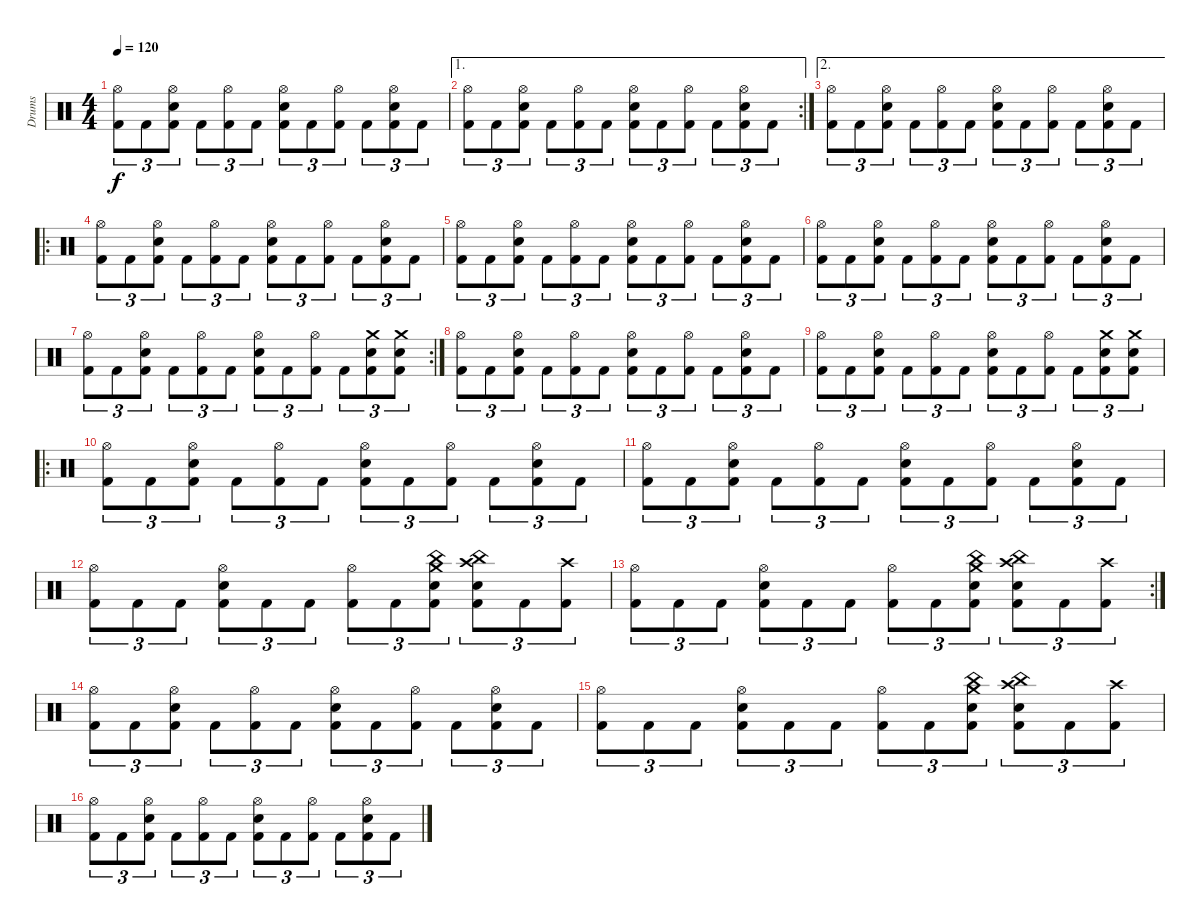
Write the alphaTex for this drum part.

\track ("Drums" "Drums") {instrument percussion}
\staff {score}
\articulation defaults
\ts (4 4)
\tempo 120
\clef neutral
\ks c
("Hi-Hat (open)" "Kick (hit) 2").8{tu (3 2) dy f} "Kick (hit) 2".8{tu (3 2)} ("Hi-Hat (open)" "Snare (hit) 2" "Kick (hit) 2").8{tu (3 2)} "Kick (hit) 2".8{tu (3 2)} ("Hi-Hat (open)" "Kick (hit) 2").8{tu (3 2)} "Kick (hit) 2".8{tu (3 2)} ("Hi-Hat (open)" "Snare (hit) 2" "Kick (hit) 2").8{tu (3 2)} "Kick (hit) 2".8{tu (3 2)} ("Hi-Hat (open)" "Kick (hit) 2").8{tu (3 2)} "Kick (hit) 2".8{tu (3 2)} ("Hi-Hat (open)" "Snare (hit) 2" "Kick (hit) 2").8{tu (3 2)} "Kick (hit) 2".8{tu (3 2)} |
\ae 1
\rc 2
("Hi-Hat (open)" "Kick (hit) 2").8{tu (3 2)} "Kick (hit) 2".8{tu (3 2)} ("Hi-Hat (open)" "Snare (hit) 2" "Kick (hit) 2").8{tu (3 2)} "Kick (hit) 2".8{tu (3 2)} ("Hi-Hat (open)" "Kick (hit) 2").8{tu (3 2)} "Kick (hit) 2".8{tu (3 2)} ("Hi-Hat (open)" "Snare (hit) 2" "Kick (hit) 2").8{tu (3 2)} "Kick (hit) 2".8{tu (3 2)} ("Hi-Hat (open)" "Kick (hit) 2").8{tu (3 2)} "Kick (hit) 2".8{tu (3 2)} ("Hi-Hat (open)" "Snare (hit) 2" "Kick (hit) 2").8{tu (3 2)} "Kick (hit) 2".8{tu (3 2)} |
\ae 2
("Hi-Hat (open)" "Kick (hit) 2").8{tu (3 2)} "Kick (hit) 2".8{tu (3 2)} ("Hi-Hat (open)" "Snare (hit) 2" "Kick (hit) 2").8{tu (3 2)} "Kick (hit) 2".8{tu (3 2)} ("Hi-Hat (open)" "Kick (hit) 2").8{tu (3 2)} "Kick (hit) 2".8{tu (3 2)} ("Hi-Hat (open)" "Snare (hit) 2" "Kick (hit) 2").8{tu (3 2)} "Kick (hit) 2".8{tu (3 2)} ("Hi-Hat (open)" "Kick (hit) 2").8{tu (3 2)} "Kick (hit) 2".8{tu (3 2)} ("Hi-Hat (open)" "Snare (hit) 2" "Kick (hit) 2").8{tu (3 2)} "Kick (hit) 2".8{tu (3 2)} |
\ro
("Hi-Hat (open)" "Kick (hit) 2").8{tu (3 2)} "Kick (hit) 2".8{tu (3 2)} ("Hi-Hat (open)" "Snare (hit) 2" "Kick (hit) 2").8{tu (3 2)} "Kick (hit) 2".8{tu (3 2)} ("Hi-Hat (open)" "Kick (hit) 2").8{tu (3 2)} "Kick (hit) 2".8{tu (3 2)} ("Hi-Hat (open)" "Snare (hit) 2" "Kick (hit) 2").8{tu (3 2)} "Kick (hit) 2".8{tu (3 2)} ("Hi-Hat (open)" "Kick (hit) 2").8{tu (3 2)} "Kick (hit) 2".8{tu (3 2)} ("Hi-Hat (open)" "Snare (hit) 2" "Kick (hit) 2").8{tu (3 2)} "Kick (hit) 2".8{tu (3 2)} |
("Hi-Hat (open)" "Kick (hit) 2").8{tu (3 2)} "Kick (hit) 2".8{tu (3 2)} ("Hi-Hat (open)" "Snare (hit) 2" "Kick (hit) 2").8{tu (3 2)} "Kick (hit) 2".8{tu (3 2)} ("Hi-Hat (open)" "Kick (hit) 2").8{tu (3 2)} "Kick (hit) 2".8{tu (3 2)} ("Hi-Hat (open)" "Snare (hit) 2" "Kick (hit) 2").8{tu (3 2)} "Kick (hit) 2".8{tu (3 2)} ("Hi-Hat (open)" "Kick (hit) 2").8{tu (3 2)} "Kick (hit) 2".8{tu (3 2)} ("Hi-Hat (open)" "Snare (hit) 2" "Kick (hit) 2").8{tu (3 2)} "Kick (hit) 2".8{tu (3 2)} |
("Hi-Hat (open)" "Kick (hit) 2").8{tu (3 2)} "Kick (hit) 2".8{tu (3 2)} ("Hi-Hat (open)" "Snare (hit) 2" "Kick (hit) 2").8{tu (3 2)} "Kick (hit) 2".8{tu (3 2)} ("Hi-Hat (open)" "Kick (hit) 2").8{tu (3 2)} "Kick (hit) 2".8{tu (3 2)} ("Hi-Hat (open)" "Snare (hit) 2" "Kick (hit) 2").8{tu (3 2)} "Kick (hit) 2".8{tu (3 2)} ("Hi-Hat (open)" "Kick (hit) 2").8{tu (3 2)} "Kick (hit) 2".8{tu (3 2)} ("Hi-Hat (open)" "Snare (hit) 2" "Kick (hit) 2").8{tu (3 2)} "Kick (hit) 2".8{tu (3 2)} |
\rc 2
("Hi-Hat (open)" "Kick (hit) 2").8{tu (3 2)} "Kick (hit) 2".8{tu (3 2)} ("Hi-Hat (open)" "Snare (hit) 2" "Kick (hit) 2").8{tu (3 2)} "Kick (hit) 2".8{tu (3 2)} ("Hi-Hat (open)" "Kick (hit) 2").8{tu (3 2)} "Kick (hit) 2".8{tu (3 2)} ("Hi-Hat (open)" "Snare (hit) 2" "Kick (hit) 2").8{tu (3 2)} "Kick (hit) 2".8{tu (3 2)} ("Hi-Hat (open)" "Kick (hit) 2").8{tu (3 2)} "Kick (hit) 2".8{tu (3 2)} ("Crash medium (hit)" "Snare (hit) 2" "Kick (hit) 2").8{tu (3 2)} ("Crash medium (hit)" "Snare (hit) 2" "Kick (hit) 2").8{tu (3 2)} |
("Hi-Hat (open)" "Kick (hit) 2").8{tu (3 2)} "Kick (hit) 2".8{tu (3 2)} ("Hi-Hat (open)" "Snare (hit) 2" "Kick (hit) 2").8{tu (3 2)} "Kick (hit) 2".8{tu (3 2)} ("Hi-Hat (open)" "Kick (hit) 2").8{tu (3 2)} "Kick (hit) 2".8{tu (3 2)} ("Hi-Hat (open)" "Snare (hit) 2" "Kick (hit) 2").8{tu (3 2)} "Kick (hit) 2".8{tu (3 2)} ("Hi-Hat (open)" "Kick (hit) 2").8{tu (3 2)} "Kick (hit) 2".8{tu (3 2)} ("Hi-Hat (open)" "Snare (hit) 2" "Kick (hit) 2").8{tu (3 2)} "Kick (hit) 2".8{tu (3 2)} |
("Hi-Hat (open)" "Kick (hit) 2").8{tu (3 2)} "Kick (hit) 2".8{tu (3 2)} ("Hi-Hat (open)" "Snare (hit) 2" "Kick (hit) 2").8{tu (3 2)} "Kick (hit) 2".8{tu (3 2)} ("Hi-Hat (open)" "Kick (hit) 2").8{tu (3 2)} "Kick (hit) 2".8{tu (3 2)} ("Hi-Hat (open)" "Snare (hit) 2" "Kick (hit) 2").8{tu (3 2)} "Kick (hit) 2".8{tu (3 2)} ("Hi-Hat (open)" "Kick (hit) 2").8{tu (3 2)} "Kick (hit) 2".8{tu (3 2)} ("Crash medium (hit)" "Snare (hit) 2" "Kick (hit) 2").8{tu (3 2)} ("Crash medium (hit)" "Snare (hit) 2" "Kick (hit) 2").8{tu (3 2)} |
\ro
("Hi-Hat (open)" "Kick (hit) 2").8{tu (3 2)} "Kick (hit) 2".8{tu (3 2)} ("Hi-Hat (open)" "Snare (hit) 2" "Kick (hit) 2").8{tu (3 2)} "Kick (hit) 2".8{tu (3 2)} ("Hi-Hat (open)" "Kick (hit) 2").8{tu (3 2)} "Kick (hit) 2".8{tu (3 2)} ("Hi-Hat (open)" "Snare (hit) 2" "Kick (hit) 2").8{tu (3 2)} "Kick (hit) 2".8{tu (3 2)} ("Hi-Hat (open)" "Kick (hit) 2").8{tu (3 2)} "Kick (hit) 2".8{tu (3 2)} ("Hi-Hat (open)" "Snare (hit) 2" "Kick (hit) 2").8{tu (3 2)} "Kick (hit) 2".8{tu (3 2)} |
("Hi-Hat (open)" "Kick (hit) 2").8{tu (3 2)} "Kick (hit) 2".8{tu (3 2)} ("Hi-Hat (open)" "Snare (hit) 2" "Kick (hit) 2").8{tu (3 2)} "Kick (hit) 2".8{tu (3 2)} ("Hi-Hat (open)" "Kick (hit) 2").8{tu (3 2)} "Kick (hit) 2".8{tu (3 2)} ("Hi-Hat (open)" "Snare (hit) 2" "Kick (hit) 2").8{tu (3 2)} "Kick (hit) 2".8{tu (3 2)} ("Hi-Hat (open)" "Kick (hit) 2").8{tu (3 2)} "Kick (hit) 2".8{tu (3 2)} ("Hi-Hat (open)" "Snare (hit) 2" "Kick (hit) 2").8{tu (3 2)} "Kick (hit) 2".8{tu (3 2)} |
("Hi-Hat (open)" "Kick (hit) 2").8{tu (3 2)} "Kick (hit) 2".8{tu (3 2)} "Kick (hit) 2".8{tu (3 2)} ("Hi-Hat (open)" "Snare (hit) 2" "Kick (hit) 2").8{tu (3 2)} "Kick (hit) 2".8{tu (3 2)} "Kick (hit) 2".8{tu (3 2)} ("Hi-Hat (open)" "Kick (hit) 2").8{tu (3 2)} "Kick (hit) 2".8{tu (3 2)} ("China (hit)" "Crash medium (hit)" "Snare (hit) 2" "Kick (hit) 2").8{tu (3 2)} ("China (hit)" "Crash high (hit)" "Snare (hit) 2" "Kick (hit) 2").8{tu (3 2)} "Kick (hit) 2".8{tu (3 2)} ("Crash high (hit)" "Kick (hit) 2").8{tu (3 2)} |
\rc 2
("Hi-Hat (open)" "Kick (hit) 2").8{tu (3 2)} "Kick (hit) 2".8{tu (3 2)} "Kick (hit) 2".8{tu (3 2)} ("Hi-Hat (open)" "Snare (hit) 2" "Kick (hit) 2").8{tu (3 2)} "Kick (hit) 2".8{tu (3 2)} "Kick (hit) 2".8{tu (3 2)} ("Hi-Hat (open)" "Kick (hit) 2").8{tu (3 2)} "Kick (hit) 2".8{tu (3 2)} ("China (hit)" "Crash medium (hit)" "Snare (hit) 2" "Kick (hit) 2").8{tu (3 2)} ("China (hit)" "Crash high (hit)" "Snare (hit) 2" "Kick (hit) 2").8{tu (3 2)} "Kick (hit) 2".8{tu (3 2)} ("Crash high (hit)" "Kick (hit) 2").8{tu (3 2)} |
("Hi-Hat (open)" "Kick (hit) 2").8{tu (3 2)} "Kick (hit) 2".8{tu (3 2)} ("Hi-Hat (open)" "Snare (hit) 2" "Kick (hit) 2").8{tu (3 2)} "Kick (hit) 2".8{tu (3 2)} ("Hi-Hat (open)" "Kick (hit) 2").8{tu (3 2)} "Kick (hit) 2".8{tu (3 2)} ("Hi-Hat (open)" "Snare (hit) 2" "Kick (hit) 2").8{tu (3 2)} "Kick (hit) 2".8{tu (3 2)} ("Hi-Hat (open)" "Kick (hit) 2").8{tu (3 2)} "Kick (hit) 2".8{tu (3 2)} ("Hi-Hat (open)" "Snare (hit) 2" "Kick (hit) 2").8{tu (3 2)} "Kick (hit) 2".8{tu (3 2)} |
("Hi-Hat (open)" "Kick (hit) 2").8{tu (3 2)} "Kick (hit) 2".8{tu (3 2)} "Kick (hit) 2".8{tu (3 2)} ("Hi-Hat (open)" "Snare (hit) 2" "Kick (hit) 2").8{tu (3 2)} "Kick (hit) 2".8{tu (3 2)} "Kick (hit) 2".8{tu (3 2)} ("Hi-Hat (open)" "Kick (hit) 2").8{tu (3 2)} "Kick (hit) 2".8{tu (3 2)} ("China (hit)" "Crash medium (hit)" "Snare (hit) 2" "Kick (hit) 2").8{tu (3 2)} ("China (hit)" "Crash high (hit)" "Snare (hit) 2" "Kick (hit) 2").8{tu (3 2)} "Kick (hit) 2".8{tu (3 2)} ("Crash high (hit)" "Kick (hit) 2").8{tu (3 2)} |
("Hi-Hat (open)" "Kick (hit) 2").8{tu (3 2)} "Kick (hit) 2".8{tu (3 2)} ("Hi-Hat (open)" "Snare (hit) 2" "Kick (hit) 2").8{tu (3 2)} "Kick (hit) 2".8{tu (3 2)} ("Hi-Hat (open)" "Kick (hit) 2").8{tu (3 2)} "Kick (hit) 2".8{tu (3 2)} ("Hi-Hat (open)" "Snare (hit) 2" "Kick (hit) 2").8{tu (3 2)} "Kick (hit) 2".8{tu (3 2)} ("Hi-Hat (open)" "Kick (hit) 2").8{tu (3 2)} "Kick (hit) 2".8{tu (3 2)} ("Hi-Hat (open)" "Snare (hit) 2" "Kick (hit) 2").8{tu (3 2)} "Kick (hit) 2".8{tu (3 2)}
